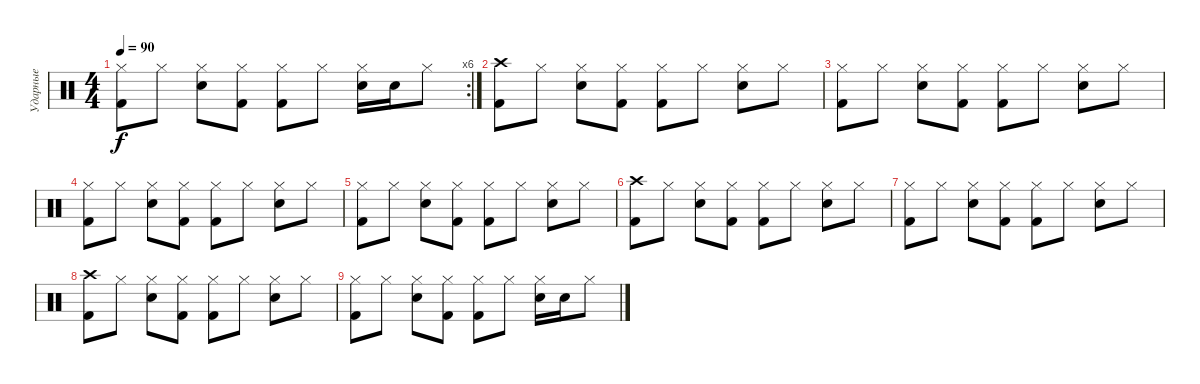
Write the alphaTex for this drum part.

\track ("Ударные" "Ударные") {instrument percussion}
\staff {score}
\articulation defaults
\rc 6
\ts (4 4)
\tempo 90
\clef neutral
\ks c
("Hi-Hat (closed)" "Kick (hit) 2").8{dy f} "Hi-Hat (closed)".8 ("Hi-Hat (closed)" "Snare (hit) 2").8 ("Hi-Hat (closed)" "Kick (hit) 2").8 ("Hi-Hat (closed)" "Kick (hit) 2").8 "Hi-Hat (closed)".8 ("Hi-Hat (closed)" "Snare (hit) 2").16 "Snare (hit) 2".16 "Hi-Hat (closed)".8 |
("Crash high (hit)" "Kick (hit) 2").8 "Hi-Hat (closed)".8 ("Hi-Hat (closed)" "Snare (hit) 2").8 ("Hi-Hat (closed)" "Kick (hit) 2").8 ("Hi-Hat (closed)" "Kick (hit) 2").8 "Hi-Hat (closed)".8 ("Hi-Hat (closed)" "Snare (hit) 2").8 "Hi-Hat (closed)".8 |
("Hi-Hat (closed)" "Kick (hit) 2").8 "Hi-Hat (closed)".8 ("Hi-Hat (closed)" "Snare (hit) 2").8 ("Hi-Hat (closed)" "Kick (hit) 2").8 ("Hi-Hat (closed)" "Kick (hit) 2").8 "Hi-Hat (closed)".8 ("Hi-Hat (closed)" "Snare (hit) 2").8 "Hi-Hat (closed)".8 |
("Hi-Hat (closed)" "Kick (hit) 2").8 "Hi-Hat (closed)".8 ("Hi-Hat (closed)" "Snare (hit) 2").8 ("Hi-Hat (closed)" "Kick (hit) 2").8 ("Hi-Hat (closed)" "Kick (hit) 2").8 "Hi-Hat (closed)".8 ("Hi-Hat (closed)" "Snare (hit) 2").8 "Hi-Hat (closed)".8 |
("Hi-Hat (closed)" "Kick (hit) 2").8 "Hi-Hat (closed)".8 ("Hi-Hat (closed)" "Snare (hit) 2").8 ("Hi-Hat (closed)" "Kick (hit) 2").8 ("Hi-Hat (closed)" "Kick (hit) 2").8 "Hi-Hat (closed)".8 ("Hi-Hat (closed)" "Snare (hit) 2").8 "Hi-Hat (closed)".8 |
("Crash high (hit)" "Kick (hit) 2").8 "Hi-Hat (closed)".8 ("Hi-Hat (closed)" "Snare (hit) 2").8 ("Hi-Hat (closed)" "Kick (hit) 2").8 ("Hi-Hat (closed)" "Kick (hit) 2").8 "Hi-Hat (closed)".8 ("Hi-Hat (closed)" "Snare (hit) 2").8 "Hi-Hat (closed)".8 |
("Hi-Hat (closed)" "Kick (hit) 2").8 "Hi-Hat (closed)".8 ("Hi-Hat (closed)" "Snare (hit) 2").8 ("Hi-Hat (closed)" "Kick (hit) 2").8 ("Hi-Hat (closed)" "Kick (hit) 2").8 "Hi-Hat (closed)".8 ("Hi-Hat (closed)" "Snare (hit) 2").8 "Hi-Hat (closed)".8 |
("Crash high (hit)" "Kick (hit) 2").8 "Hi-Hat (closed)".8 ("Hi-Hat (closed)" "Snare (hit) 2").8 ("Hi-Hat (closed)" "Kick (hit) 2").8 ("Hi-Hat (closed)" "Kick (hit) 2").8 "Hi-Hat (closed)".8 ("Hi-Hat (closed)" "Snare (hit) 2").8 "Hi-Hat (closed)".8 |
("Hi-Hat (closed)" "Kick (hit) 2").8 "Hi-Hat (closed)".8 ("Hi-Hat (closed)" "Snare (hit) 2").8 ("Hi-Hat (closed)" "Kick (hit) 2").8 ("Hi-Hat (closed)" "Kick (hit) 2").8 "Hi-Hat (closed)".8 ("Hi-Hat (closed)" "Snare (hit) 2").16 "Snare (hit) 2".16 "Hi-Hat (closed)".8
